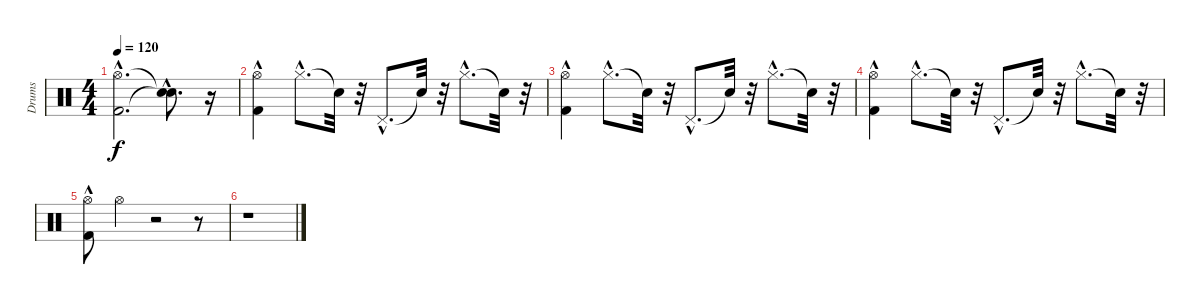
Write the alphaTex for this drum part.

\track ("Drums" "Drums") {instrument percussion}
\staff {score}
\articulation defaults
\ts (4 4)
\tempo 120
\clef neutral
\ks c
("Kick (hit) 2"{hac} "Hi-Hat (open)"{hac}).2{d dy f} ("Snare (hit)"{hac t} "Snare (hit)"{hac t}).8{d} r.16 |
("Kick (hit) 2"{hac} "Hi-Hat (open)"{hac}).4 "Hi-Hat (closed)"{hac}.8{d} "Snare (hit)"{t}.32 r.32 "Pedal Hi-Hat (hit)"{hac}.8{d} "Snare (hit)"{t}.32 r.32 "Hi-Hat (closed)"{hac}.8{d} "Snare (hit)"{t}.32 r.32 |
("Kick (hit) 2"{hac} "Hi-Hat (open)"{hac}).4 "Hi-Hat (closed)"{hac}.8{d} "Snare (hit)"{t}.32 r.32 "Pedal Hi-Hat (hit)"{hac}.8{d} "Snare (hit)"{t}.32 r.32 "Hi-Hat (closed)"{hac}.8{d} "Snare (hit)"{t}.32 r.32 |
("Kick (hit) 2"{hac} "Hi-Hat (open)"{hac}).4 "Hi-Hat (closed)"{hac}.8{d} "Snare (hit)"{t}.32 r.32 "Pedal Hi-Hat (hit)"{hac}.8{d} "Snare (hit)"{t}.32 r.32 "Hi-Hat (closed)"{hac}.8{d} "Snare (hit)"{t}.32 r.32 |
("Kick (hit) 2"{hac} "Hi-Hat (open)").8 "Hi-Hat (open)".4 r.2 r.8 |
r.1
